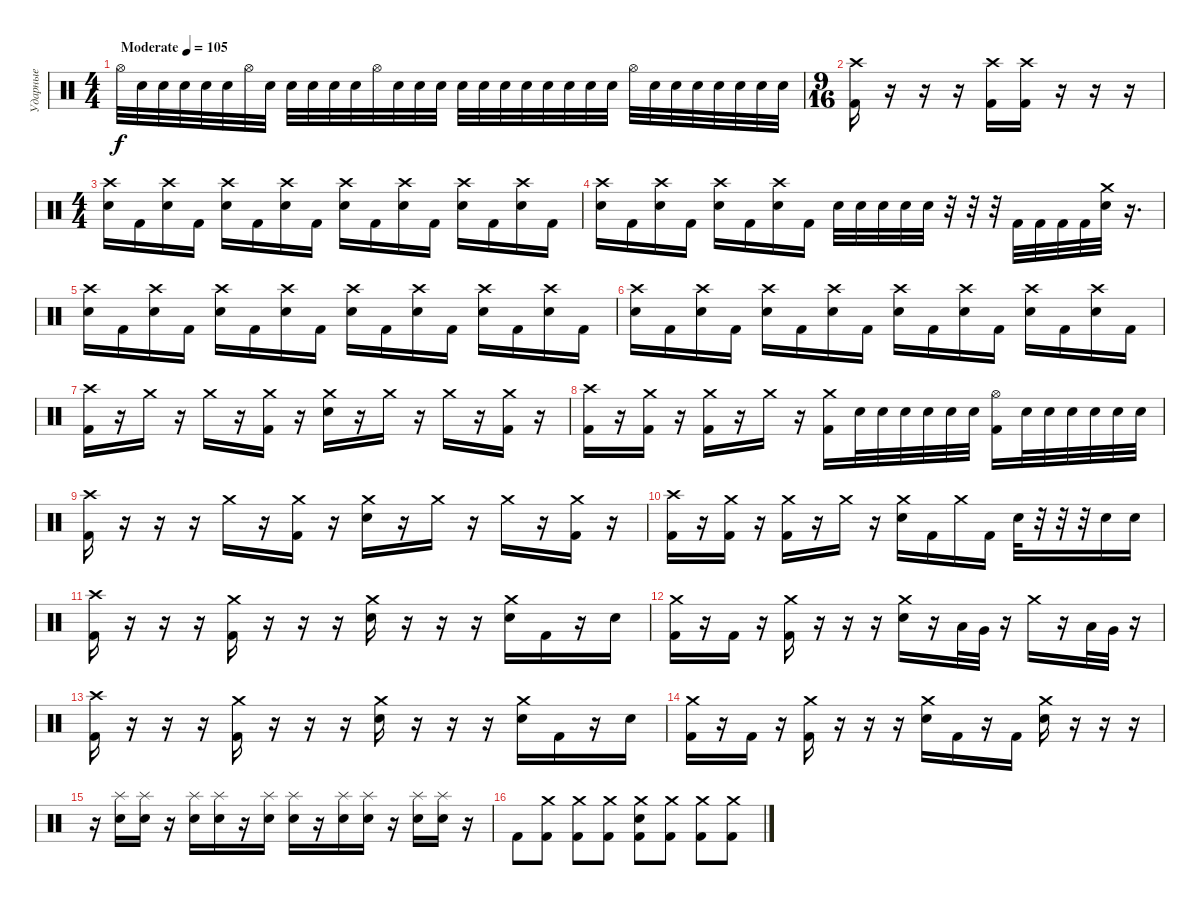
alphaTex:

\track ("Ударные" "Ударные") {instrument percussion}
\staff {score}
\articulation defaults
\ts (4 4)
\tempo (105 "Moderate")
\clef neutral
\ks c "Hi-Hat (open)".32{dy f} "Electric Snare (hit)".32 "Electric Snare (hit)".32 "Electric Snare (hit)".32 "Electric Snare (hit)".32 "Electric Snare (hit)".32 "Hi-Hat (open)".32 "Electric Snare (hit)".32 "Electric Snare (hit)".32 "Electric Snare (hit)".32 "Electric Snare (hit)".32 "Electric Snare (hit)".32 "Hi-Hat (open)".32 "Electric Snare (hit)".32 "Electric Snare (hit)".32 "Electric Snare (hit)".32 "Electric Snare (hit)".32 "Electric Snare (hit)".32 "Electric Snare (hit)".32 "Electric Snare (hit)".32 "Electric Snare (hit)".32 "Electric Snare (hit)".32 "Electric Snare (hit)".32 "Electric Snare (hit)".32 "Hi-Hat (open)".32 "Electric Snare (hit)".32 "Electric Snare (hit)".32 "Electric Snare (hit)".32 "Electric Snare (hit)".32 "Electric Snare (hit)".32 "Electric Snare (hit)".32 "Electric Snare (hit)".32
|
\ts (9 16)
("Crash high (hit)" "Kick (hit) 2").16 r.16 r.16 r.16 ("Kick (hit) 2" "Crash high (hit)").16 ("Kick (hit) 2" "Crash high (hit)").16 r.16 r.16 r.16 |
\ts (4 4)
("Electric Snare (hit)" "Crash high (hit)").16 "Kick (hit) 2".16 ("Electric Snare (hit)" "Crash high (hit)").16 "Kick (hit) 2".16 ("Electric Snare (hit)" "Crash high (hit)").16 "Kick (hit) 2".16 ("Electric Snare (hit)" "Crash high (hit)").16 "Kick (hit) 2".16 ("Electric Snare (hit)" "Crash high (hit)").16 "Kick (hit) 2".16 ("Electric Snare (hit)" "Crash high (hit)").16 "Kick (hit) 2".16 ("Electric Snare (hit)" "Crash high (hit)").16 "Kick (hit) 2".16 ("Electric Snare (hit)" "Crash high (hit)").16 "Kick (hit) 2".16 |
("Electric Snare (hit)" "Crash high (hit)").16 "Kick (hit) 2".16 ("Electric Snare (hit)" "Crash high (hit)").16 "Kick (hit) 2".16 ("Electric Snare (hit)" "Crash high (hit)").16 "Kick (hit) 2".16 ("Electric Snare (hit)" "Crash high (hit)").16 "Kick (hit) 2".16 "Electric Snare (hit)".32 "Electric Snare (hit)".32 "Electric Snare (hit)".32 "Electric Snare (hit)".32 "Electric Snare (hit)".32 r.32 r.32 r.32 "Kick (hit) 2".32 "Kick (hit) 2".32 "Kick (hit) 2".32 "Kick (hit) 2".32 ("Electric Snare (hit)" "Crash medium (hit)").32 r.16{d} |
("Electric Snare (hit)" "Crash high (hit)").16 "Kick (hit) 2".16 ("Electric Snare (hit)" "Crash high (hit)").16 "Kick (hit) 2".16 ("Electric Snare (hit)" "Crash high (hit)").16 "Kick (hit) 2".16 ("Electric Snare (hit)" "Crash high (hit)").16 "Kick (hit) 2".16 ("Electric Snare (hit)" "Crash high (hit)").16 "Kick (hit) 2".16 ("Electric Snare (hit)" "Crash high (hit)").16 "Kick (hit) 2".16 ("Electric Snare (hit)" "Crash high (hit)").16 "Kick (hit) 2".16 ("Electric Snare (hit)" "Crash high (hit)").16 "Kick (hit) 2".16 |
("Electric Snare (hit)" "Crash high (hit)").16 "Kick (hit) 2".16 ("Electric Snare (hit)" "Crash high (hit)").16 "Kick (hit) 2".16 ("Electric Snare (hit)" "Crash high (hit)").16 "Kick (hit) 2".16 ("Electric Snare (hit)" "Crash high (hit)").16 "Kick (hit) 2".16 ("Electric Snare (hit)" "Crash high (hit)").16 "Kick (hit) 2".16 ("Electric Snare (hit)" "Crash high (hit)").16 "Kick (hit) 2".16 ("Electric Snare (hit)" "Crash high (hit)").16 "Kick (hit) 2".16 ("Electric Snare (hit)" "Crash high (hit)").16 "Kick (hit) 2".16 |
("Crash high (hit)" "Kick (hit) 2").16 r.16 "Crash medium (hit)".16 r.16 "Crash medium (hit)".16 r.16 ("Crash medium (hit)" "Kick (hit) 2").16 r.16 ("Crash medium (hit)" "Electric Snare (hit)").16 r.16 "Crash medium (hit)".16 r.16 "Crash medium (hit)".16 r.16 ("Crash medium (hit)" "Kick (hit) 2").16 r.16 |
("Crash high (hit)" "Kick (hit) 2").16 r.16 ("Crash medium (hit)" "Kick (hit) 2").16 r.16 ("Crash medium (hit)" "Kick (hit) 2").16 r.16 "Crash medium (hit)".16 r.16 ("Crash medium (hit)" "Kick (hit) 2").16 "Electric Snare (hit)".32 "Electric Snare (hit)".32 "Electric Snare (hit)".32 "Electric Snare (hit)".32 "Electric Snare (hit)".32 "Electric Snare (hit)".32 ("Kick (hit) 2" "Hi-Hat (open)").16 "Electric Snare (hit)".32 "Electric Snare (hit)".32 "Electric Snare (hit)".32 "Electric Snare (hit)".32 "Electric Snare (hit)".32 "Electric Snare (hit)".32 |
("Crash high (hit)" "Kick (hit) 2").16 r.16 r.16 r.16 "Crash medium (hit)".16 r.16 ("Crash medium (hit)" "Kick (hit) 2").16 r.16 ("Crash medium (hit)" "Electric Snare (hit)").16 r.16 "Crash medium (hit)".16 r.16 "Crash medium (hit)".16 r.16 ("Crash medium (hit)" "Kick (hit) 2").16 r.16 |
("Crash high (hit)" "Kick (hit) 2").16 r.16 ("Crash medium (hit)" "Kick (hit) 2").16 r.16 ("Crash medium (hit)" "Kick (hit) 2").16 r.16 "Crash medium (hit)".16 r.16 ("Crash medium (hit)" "Electric Snare (hit)").16 "Kick (hit) 2".16 "Crash medium (hit)".16 "Kick (hit) 2".16 "Electric Snare (hit)".32 r.32 r.32 r.32 "Electric Snare (hit)".16 "Electric Snare (hit)".16 |
("Crash high (hit)" "Kick (hit) 2").16 r.16 r.16 r.16 ("Crash medium (hit)" "Kick (hit) 2").16 r.16 r.16 r.16 ("Crash medium (hit)" "Electric Snare (hit)").16 r.16 r.16 r.16 ("Crash medium (hit)" "Electric Snare (hit)").16 "Kick (hit) 2".16 r.16 "Electric Snare (hit)".16 |
("Crash medium (hit)" "Kick (hit) 2").16 r.16 "Kick (hit) 2".16 r.16 ("Crash medium (hit)" "Kick (hit) 2").16 r.16 r.16 r.16 ("Crash medium (hit)" "Electric Snare (hit)").16 r.16 "Low Tom (hit)".32 "Very Low Tom (hit)".32 r.16 "Crash medium (hit)".16 r.16 "Low Tom (hit)".32 "Very Low Tom (hit)".32 r.16 |
("Crash high (hit)" "Kick (hit) 2").16 r.16 r.16 r.16 ("Crash medium (hit)" "Kick (hit) 2").16 r.16 r.16 r.16 ("Crash medium (hit)" "Electric Snare (hit)").16 r.16 r.16 r.16 ("Crash medium (hit)" "Electric Snare (hit)").16 "Kick (hit) 2".16 r.16 "Electric Snare (hit)".16 |
("Crash medium (hit)" "Kick (hit) 2").16 r.16 "Kick (hit) 2".16 r.16 ("Crash medium (hit)" "Kick (hit) 2").16 r.16 r.16 r.16 ("Crash medium (hit)" "Electric Snare (hit)").16 "Kick (hit) 2".16 r.16 "Kick (hit) 2".16 ("Crash medium (hit)" "Electric Snare (hit)").16 r.16 r.16 r.16 |
r.16 ("Splash (hit)" "Electric Snare (hit)").16 ("Splash (hit)" "Electric Snare (hit)").16 r.16 ("Splash (hit)" "Electric Snare (hit)").16 ("Splash (hit)" "Electric Snare (hit)").16 r.16 ("Splash (hit)" "Electric Snare (hit)").16 ("Splash (hit)" "Electric Snare (hit)").16 r.16 ("Splash (hit)" "Electric Snare (hit)").16 ("Splash (hit)" "Electric Snare (hit)").16 r.16 ("Splash (hit)" "Electric Snare (hit)").16 ("Splash (hit)" "Electric Snare (hit)").16 r.16 |
"Kick (hit) 2".8 ("Crash medium (hit)" "Kick (hit) 2").8 ("Crash medium (hit)" "Kick (hit) 2").8 ("Crash medium (hit)" "Kick (hit) 2").8 ("Crash medium (hit)" "Electric Snare (hit)" "Kick (hit) 2").8 ("Crash medium (hit)" "Kick (hit) 2").8 ("Crash medium (hit)" "Kick (hit) 2").8 ("Crash medium (hit)" "Kick (hit) 2").8
